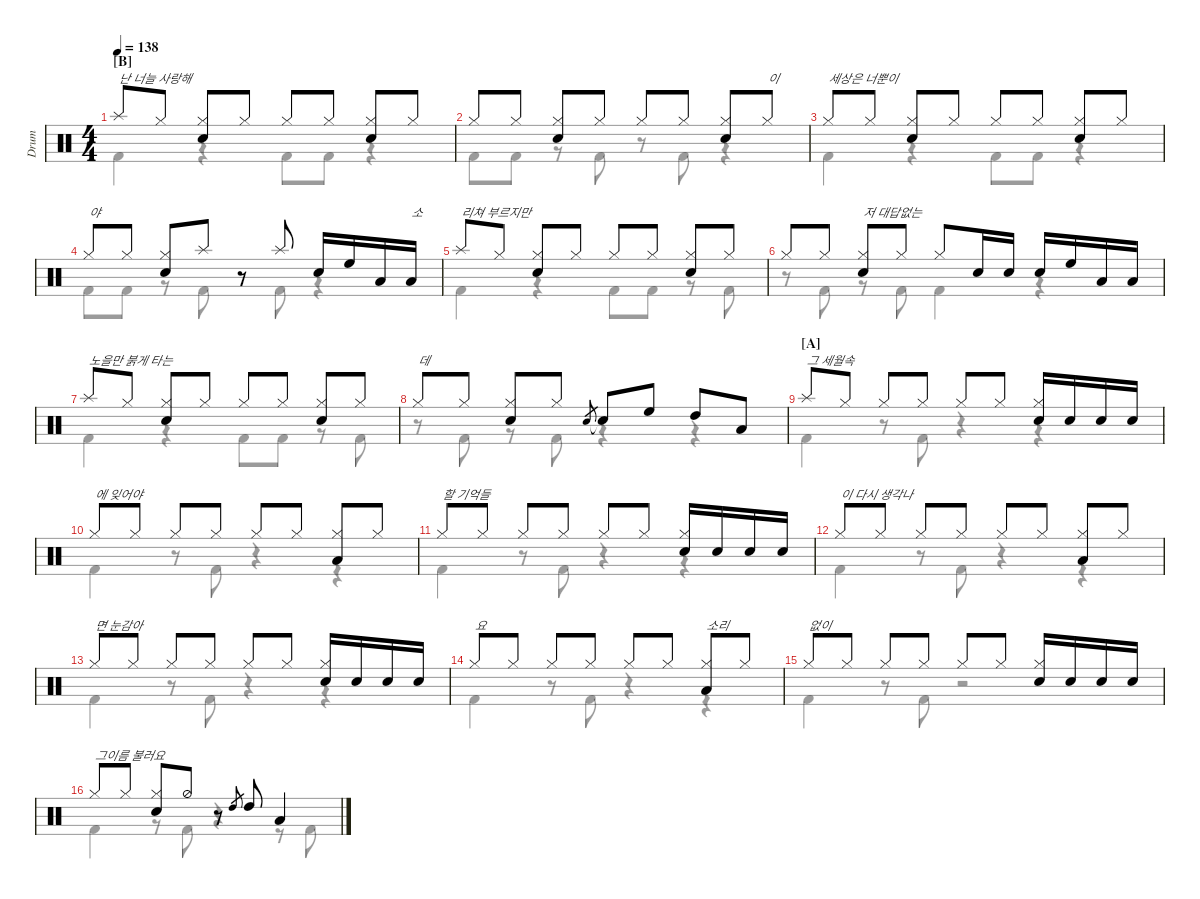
\defaultSystemsLayout 4
\hideDynamics
\bracketExtendMode nobrackets
\track ("Drumkit" "Drum") {instrument percussion}
\staff {score}
\articulation defaults
\voice
\ts (4 4)
\section ("B" "")
\tempo 138
\clef neutral
\ks c "Splash (hit)".8{txt "난 너늘 사랑해" dy mf beam Up} "Hi-Hat (closed)".8{beam Up}
("Hi-Hat (closed)" "Snare (hit) 2").8{beam Up} "Hi-Hat (closed)".8{beam Up} "Hi-Hat (closed)".8{beam Up} "Hi-Hat (closed)".8{beam Up} ("Hi-Hat (closed)" "Snare (hit) 2").8{beam Up} "Hi-Hat (closed)".8{beam Up} |
"Hi-Hat (closed)".8{beam Up} "Hi-Hat (closed)".8{beam Up} ("Hi-Hat (closed)" "Snare (hit) 2").8{beam Up} "Hi-Hat (closed)".8{beam Up} "Hi-Hat (closed)".8{beam Up} "Hi-Hat (closed)".8{beam Up} ("Hi-Hat (closed)" "Snare (hit) 2").8{beam Up} "Hi-Hat (closed)".8{txt "이" beam Up} |
"Hi-Hat (closed)".8{txt "세상은 너뿐이" beam Up} "Hi-Hat (closed)".8{beam Up} ("Hi-Hat (closed)" "Snare (hit) 2").8{beam Up} "Hi-Hat (closed)".8{beam Up} "Hi-Hat (closed)".8{beam Up} "Hi-Hat (closed)".8{beam Up} ("Hi-Hat (closed)" "Snare (hit) 2").8{beam Up} "Hi-Hat (closed)".8{beam Up} |
"Hi-Hat (closed)".8{txt "야" beam Up} "Hi-Hat (closed)".8{beam Up} ("Hi-Hat (closed)" "Snare (hit) 2").8{beam Up} "Splash (hit)".8{beam Up} r.8{beam Up} "Splash (hit)".8{beam Up} "Snare (hit) 2".16{beam Up} "High Floor Tom (hit)".16{beam Up} "Low Tom (hit)".16{beam Up} "Low Tom (hit)".16{txt "소" beam Up} |
"Splash (hit)".8{txt "리쳐 부르지만" beam Up} "Hi-Hat (closed)".8{beam Up} ("Hi-Hat (closed)" "Snare (hit) 2").8{beam Up} "Hi-Hat (closed)".8{beam Up} "Hi-Hat (closed)".8{beam Up} "Hi-Hat (closed)".8{beam Up} ("Hi-Hat (closed)" "Snare (hit) 2").8{beam Up} "Hi-Hat (closed)".8{beam Up} |
"Hi-Hat (closed)".8{beam Up} "Hi-Hat (closed)".8{beam Up} ("Hi-Hat (closed)" "Snare (hit) 2").8{txt "저 대답없는" beam Up} "Hi-Hat (closed)".8{beam Up} "Hi-Hat (closed)".8{beam Up} "Snare (hit) 2".16{beam Up} "Snare (hit) 2".16{beam Up} "Snare (hit) 2".16{beam Up} "High Floor Tom (hit)".16{beam Up} "Low Tom (hit)".16{beam Up} "Low Tom (hit)".16{beam Up} |
"Splash (hit)".8{txt "노을만 붉게 타는" beam Up} "Hi-Hat (closed)".8{beam Up} ("Hi-Hat (closed)" "Snare (hit) 2").8{beam Up} "Hi-Hat (closed)".8{beam Up} "Hi-Hat (closed)".8{beam Up} "Hi-Hat (closed)".8{beam Up} ("Hi-Hat (closed)" "Snare (hit) 2").8{beam Up} "Hi-Hat (closed)".8{beam Up} |
"Hi-Hat (closed)".8{txt "데" beam Up} "Hi-Hat (closed)".8{beam Up} ("Hi-Hat (closed)" "Snare (hit) 2").8{beam Up} "Hi-Hat (closed)".8{beam Up} "Snare (hit) 2".8{gr beam Up} "Snare (hit) 2"{t}.8{beam Up} "High Floor Tom (hit)".8{beam Up} "High Tom (hit)".8{beam Up} "Low Tom (hit)".8{beam Up} |
\section ("A" "")
"Splash (hit)".8{txt "그 세월속" beam Up} "Hi-Hat (closed)".8{beam Up} "Hi-Hat (closed)".8{beam Up} "Hi-Hat (closed)".8{beam Up} "Hi-Hat (closed)".8{beam Up} "Hi-Hat (closed)".8{beam Up} ("Hi-Hat (closed)" "Snare (hit) 2").16{beam Up} "Snare (hit) 2".16{beam Up} "Snare (hit) 2".16{beam Up} "Snare (hit) 2".16{beam Up} |
"Hi-Hat (closed)".8{txt "에 잊어야" beam Up} "Hi-Hat (closed)".8{beam Up} "Hi-Hat (closed)".8{beam Up} "Hi-Hat (closed)".8{beam Up} "Hi-Hat (closed)".8{beam Up} "Hi-Hat (closed)".8{beam Up} ("Hi-Hat (closed)" "Low Tom (hit)").8{beam Up} "Hi-Hat (closed)".8{beam Up} |
"Hi-Hat (closed)".8{txt "할 기억들" beam Up} "Hi-Hat (closed)".8{beam Up} "Hi-Hat (closed)".8{beam Up} "Hi-Hat (closed)".8{beam Up} "Hi-Hat (closed)".8{beam Up} "Hi-Hat (closed)".8{beam Up} ("Hi-Hat (closed)" "Snare (hit) 2").16{beam Up} "Snare (hit) 2".16{beam Up} "Snare (hit) 2".16{beam Up} "Snare (hit) 2".16{beam Up} |
"Hi-Hat (closed)".8{txt "이 다시 생각나" beam Up} "Hi-Hat (closed)".8{beam Up} "Hi-Hat (closed)".8{beam Up} "Hi-Hat (closed)".8{beam Up} "Hi-Hat (closed)".8{beam Up} "Hi-Hat (closed)".8{beam Up} ("Hi-Hat (closed)" "Low Tom (hit)").8{beam Up} "Hi-Hat (closed)".8{beam Up} |
"Hi-Hat (closed)".8{txt "면 눈감아" beam Up} "Hi-Hat (closed)".8{beam Up} "Hi-Hat (closed)".8{beam Up} "Hi-Hat (closed)".8{beam Up} "Hi-Hat (closed)".8{beam Up} "Hi-Hat (closed)".8{beam Up} ("Hi-Hat (closed)" "Snare (hit) 2").16{beam Up} "Snare (hit) 2".16{beam Up} "Snare (hit) 2".16{beam Up} "Snare (hit) 2".16{beam Up} |
"Hi-Hat (closed)".8{txt "요 " beam Up} "Hi-Hat (closed)".8{beam Up} "Hi-Hat (closed)".8{beam Up} "Hi-Hat (closed)".8{beam Up} "Hi-Hat (closed)".8{beam Up} "Hi-Hat (closed)".8{beam Up} ("Hi-Hat (closed)" "Low Tom (hit)").8{txt "소리" beam Up} "Hi-Hat (closed)".8{beam Up} |
"Hi-Hat (closed)".8{txt "없이" beam Up} "Hi-Hat (closed)".8{beam Up} "Hi-Hat (closed)".8{beam Up} "Hi-Hat (closed)".8{beam Up} "Hi-Hat (closed)".8{beam Up} "Hi-Hat (closed)".8{beam Up} ("Hi-Hat (closed)" "Snare (hit) 2").16{beam Up} "Snare (hit) 2".16{beam Up} "Snare (hit) 2".16{beam Up} "Snare (hit) 2".16{beam Up} |
"Hi-Hat (closed)".8{txt "그이름 불러요" beam Up} "Hi-Hat (closed)".8{beam Up} ("Hi-Hat (closed)" "Snare (hit) 2").8{beam Up} "Hi-Hat (half)".8{beam Up} r.8{beam Up} "High Tom (hit)".8{gr beam Up} "High Tom (hit)".8{beam Up} "Low Tom (hit)".4{beam Up}
\voice
\clef neutral
\ottava regular
\simile none
\ks c
|
|
|
|
|
|
|
|
|
|
|
|
|
|
|
\voice
\clef neutral
\ottava regular
\simile none
\ks c "Kick (hit) 2".4{dy mf beam Down}
r.4{beam Down} "Kick (hit) 2".8{beam Down} "Kick (hit) 2".8{beam Down} r.4{beam Down} |
"Kick (hit) 2".8{beam Down} "Kick (hit) 2".8{beam Down} r.8{beam Down} "Kick (hit) 2".8{beam Down} r.8{beam Down} "Kick (hit) 2".8{beam Down} r.4{beam Down} |
"Kick (hit) 2".4{beam Down} r.4{beam Down} "Kick (hit) 2".8{beam Down} "Kick (hit) 2".8{beam Down} r.4{beam Down} |
"Kick (hit) 2".8{beam Down} "Kick (hit) 2".8{beam Down} r.8{beam Down} "Kick (hit) 2".8{beam Down} r.8{beam Down} "Kick (hit) 2".8{beam Down} r.4{beam Down} |
"Kick (hit) 2".4{beam Down} r.4{beam Down} "Kick (hit) 2".8{beam Down} "Kick (hit) 2".8{beam Down} r.8{beam Down} "Kick (hit) 2".8{beam Down} |
r.8{beam Down} "Kick (hit) 2".8{beam Down} r.8{beam Down} "Kick (hit) 2".8{beam Down} "Kick (hit) 2".4{beam Down} r.4{beam Down} |
"Kick (hit) 2".4{beam Down} r.4{beam Down} "Kick (hit) 2".8{beam Down} "Kick (hit) 2".8{beam Down} r.8{beam Down} "Kick (hit) 2".8{beam Down} |
r.8{beam Down} "Kick (hit) 2".8{beam Down} r.8{beam Down} "Kick (hit) 2".8{beam Down} r.4{beam Down} r.4{beam Down} |
"Kick (hit) 2".4{beam Down} r.8{beam Down} "Kick (hit) 2".8{beam Down} r.4{beam Down} r.4{beam Down} |
"Kick (hit) 2".4{beam Down} r.8{beam Down} "Kick (hit) 2".8{beam Down} r.4{beam Down} r.4{beam Down} |
"Kick (hit) 2".4{beam Down} r.8{beam Down} "Kick (hit) 2".8{beam Down} r.4{beam Down} r.4{beam Down} |
"Kick (hit) 2".4{beam Down} r.8{beam Down} "Kick (hit) 2".8{beam Down} r.4{beam Down} r.4{beam Down} |
"Kick (hit) 2".4{beam Down} r.8{beam Down} "Kick (hit) 2".8{beam Down} r.4{beam Down} r.4{beam Down} |
"Kick (hit) 2".4{beam Down} r.8{beam Down} "Kick (hit) 2".8{beam Down} r.4{beam Down} r.4{beam Down} |
"Kick (hit) 2".4{beam Down} r.8{beam Down} "Kick (hit) 2".8{beam Down} r.2{beam Down} |
"Kick (hit) 2".4{beam Down} r.8{beam Down} "Kick (hit) 2".8{beam Down} r.4{beam Down} r.8{beam Down} "Kick (hit) 2".8{beam Down}
